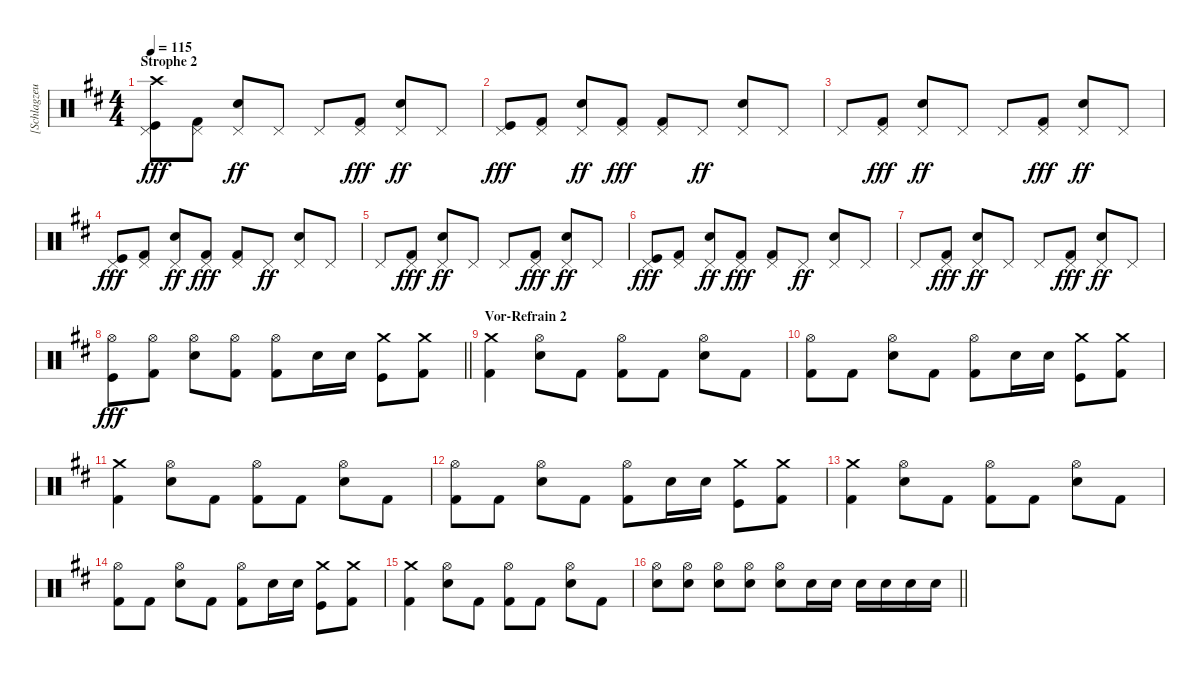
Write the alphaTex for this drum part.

\track ("[Schlagzeug]" "[Schlagzeu") {instrument percussion}
\staff {score}
\articulation defaults
\ts (4 4)
\section ("" "Strophe 2")
\tempo 115
\clef neutral
\ks bminor
("Crash high (hit)" "Pedal Hi-Hat (hit)" "Kick (hit)").8{dy fff} ("Pedal Hi-Hat (hit)" "Kick (hit) 2").8 ("Electric Snare (hit)" "Pedal Hi-Hat (hit)").8{dy ff} "Pedal Hi-Hat (hit)".8 "Pedal Hi-Hat (hit)".8 ("Pedal Hi-Hat (hit)" "Kick (hit) 2").8{dy fff} ("Electric Snare (hit)" "Pedal Hi-Hat (hit)").8{dy ff} "Pedal Hi-Hat (hit)".8 |
("Pedal Hi-Hat (hit)" "Kick (hit)").8{dy fff} ("Pedal Hi-Hat (hit)" "Kick (hit) 2").8 ("Electric Snare (hit)" "Pedal Hi-Hat (hit)").8{dy ff} ("Pedal Hi-Hat (hit)" "Kick (hit) 2").8{dy fff} ("Pedal Hi-Hat (hit)" "Kick (hit) 2").8 "Pedal Hi-Hat (hit)".8{dy ff} ("Electric Snare (hit)" "Pedal Hi-Hat (hit)").8 "Pedal Hi-Hat (hit)".8 |
"Pedal Hi-Hat (hit)".8 ("Pedal Hi-Hat (hit)" "Kick (hit) 2").8{dy fff} ("Electric Snare (hit)" "Pedal Hi-Hat (hit)").8{dy ff} "Pedal Hi-Hat (hit)".8 "Pedal Hi-Hat (hit)".8 ("Pedal Hi-Hat (hit)" "Kick (hit) 2").8{dy fff} ("Electric Snare (hit)" "Pedal Hi-Hat (hit)").8{dy ff} "Pedal Hi-Hat (hit)".8 |
("Pedal Hi-Hat (hit)" "Kick (hit)").8{dy fff} ("Pedal Hi-Hat (hit)" "Kick (hit) 2").8 ("Electric Snare (hit)" "Pedal Hi-Hat (hit)").8{dy ff} ("Pedal Hi-Hat (hit)" "Kick (hit) 2").8{dy fff} ("Pedal Hi-Hat (hit)" "Kick (hit) 2").8 "Pedal Hi-Hat (hit)".8{dy ff} ("Electric Snare (hit)" "Pedal Hi-Hat (hit)").8 "Pedal Hi-Hat (hit)".8 |
"Pedal Hi-Hat (hit)".8 ("Pedal Hi-Hat (hit)" "Kick (hit) 2").8{dy fff} ("Electric Snare (hit)" "Pedal Hi-Hat (hit)").8{dy ff} "Pedal Hi-Hat (hit)".8 "Pedal Hi-Hat (hit)".8 ("Pedal Hi-Hat (hit)" "Kick (hit) 2").8{dy fff} ("Electric Snare (hit)" "Pedal Hi-Hat (hit)").8{dy ff} "Pedal Hi-Hat (hit)".8 |
("Pedal Hi-Hat (hit)" "Kick (hit)").8{dy fff} ("Pedal Hi-Hat (hit)" "Kick (hit) 2").8 ("Electric Snare (hit)" "Pedal Hi-Hat (hit)").8{dy ff} ("Pedal Hi-Hat (hit)" "Kick (hit) 2").8{dy fff} ("Pedal Hi-Hat (hit)" "Kick (hit) 2").8 "Pedal Hi-Hat (hit)".8{dy ff} ("Electric Snare (hit)" "Pedal Hi-Hat (hit)").8 "Pedal Hi-Hat (hit)".8 |
"Pedal Hi-Hat (hit)".8 ("Pedal Hi-Hat (hit)" "Kick (hit) 2").8{dy fff} ("Electric Snare (hit)" "Pedal Hi-Hat (hit)").8{dy ff} "Pedal Hi-Hat (hit)".8 "Pedal Hi-Hat (hit)".8 ("Pedal Hi-Hat (hit)" "Kick (hit) 2").8{dy fff} ("Electric Snare (hit)" "Pedal Hi-Hat (hit)").8{dy ff} "Pedal Hi-Hat (hit)".8 |
\barLineRight lightlight
("Hi-Hat (open)" "Kick (hit)").8{dy fff} ("Hi-Hat (open)" "Kick (hit) 2").8 ("Electric Snare (hit)" "Hi-Hat (open)").8 ("Hi-Hat (open)" "Kick (hit) 2").8 ("Hi-Hat (open)" "Kick (hit) 2").8 "Electric Snare (hit)".16 "Electric Snare (hit)".16 ("Crash medium (hit)" "Kick (hit)").8 ("Crash medium (hit)" "Kick (hit) 2").8 |
\section ("" "Vor-Refrain 2")
("Crash medium (hit)" "Kick (hit) 2").4 ("Electric Snare (hit)" "Hi-Hat (open)").8 "Kick (hit) 2".8 ("Hi-Hat (open)" "Kick (hit) 2").8 "Kick (hit) 2".8 ("Electric Snare (hit)" "Hi-Hat (open)").8 "Kick (hit) 2".8 |
("Hi-Hat (open)" "Kick (hit) 2").8 "Kick (hit) 2".8 ("Electric Snare (hit)" "Hi-Hat (open)").8 "Kick (hit) 2".8 ("Hi-Hat (open)" "Kick (hit) 2").8 "Electric Snare (hit)".16 "Electric Snare (hit)".16 ("Crash medium (hit)" "Kick (hit)").8 ("Crash medium (hit)" "Kick (hit) 2").8 |
("Crash medium (hit)" "Kick (hit) 2").4 ("Electric Snare (hit)" "Hi-Hat (open)").8 "Kick (hit) 2".8 ("Hi-Hat (open)" "Kick (hit) 2").8 "Kick (hit) 2".8 ("Electric Snare (hit)" "Hi-Hat (open)").8 "Kick (hit) 2".8 |
("Hi-Hat (open)" "Kick (hit) 2").8 "Kick (hit) 2".8 ("Electric Snare (hit)" "Hi-Hat (open)").8 "Kick (hit) 2".8 ("Hi-Hat (open)" "Kick (hit) 2").8 "Electric Snare (hit)".16 "Electric Snare (hit)".16 ("Crash medium (hit)" "Kick (hit)").8 ("Crash medium (hit)" "Kick (hit) 2").8 |
("Crash medium (hit)" "Kick (hit) 2").4 ("Electric Snare (hit)" "Hi-Hat (open)").8 "Kick (hit) 2".8 ("Hi-Hat (open)" "Kick (hit) 2").8 "Kick (hit) 2".8 ("Electric Snare (hit)" "Hi-Hat (open)").8 "Kick (hit) 2".8 |
("Hi-Hat (open)" "Kick (hit) 2").8 "Kick (hit) 2".8 ("Electric Snare (hit)" "Hi-Hat (open)").8 "Kick (hit) 2".8 ("Hi-Hat (open)" "Kick (hit) 2").8 "Electric Snare (hit)".16 "Electric Snare (hit)".16 ("Crash medium (hit)" "Kick (hit)").8 ("Crash medium (hit)" "Kick (hit) 2").8 |
("Crash medium (hit)" "Kick (hit) 2").4 ("Electric Snare (hit)" "Hi-Hat (open)").8 "Kick (hit) 2".8 ("Hi-Hat (open)" "Kick (hit) 2").8 "Kick (hit) 2".8 ("Electric Snare (hit)" "Hi-Hat (open)").8 "Kick (hit) 2".8 |
\barLineRight lightlight
("Electric Snare (hit)" "Hi-Hat (open)").8 ("Electric Snare (hit)" "Hi-Hat (open)").8 ("Electric Snare (hit)" "Hi-Hat (open)").8 ("Electric Snare (hit)" "Hi-Hat (open)").8 ("Electric Snare (hit)" "Hi-Hat (open)").8 "Electric Snare (hit)".16 "Electric Snare (hit)".16 "Electric Snare (hit)".16 "Electric Snare (hit)".16 "Electric Snare (hit)".16 "Electric Snare (hit)".16
